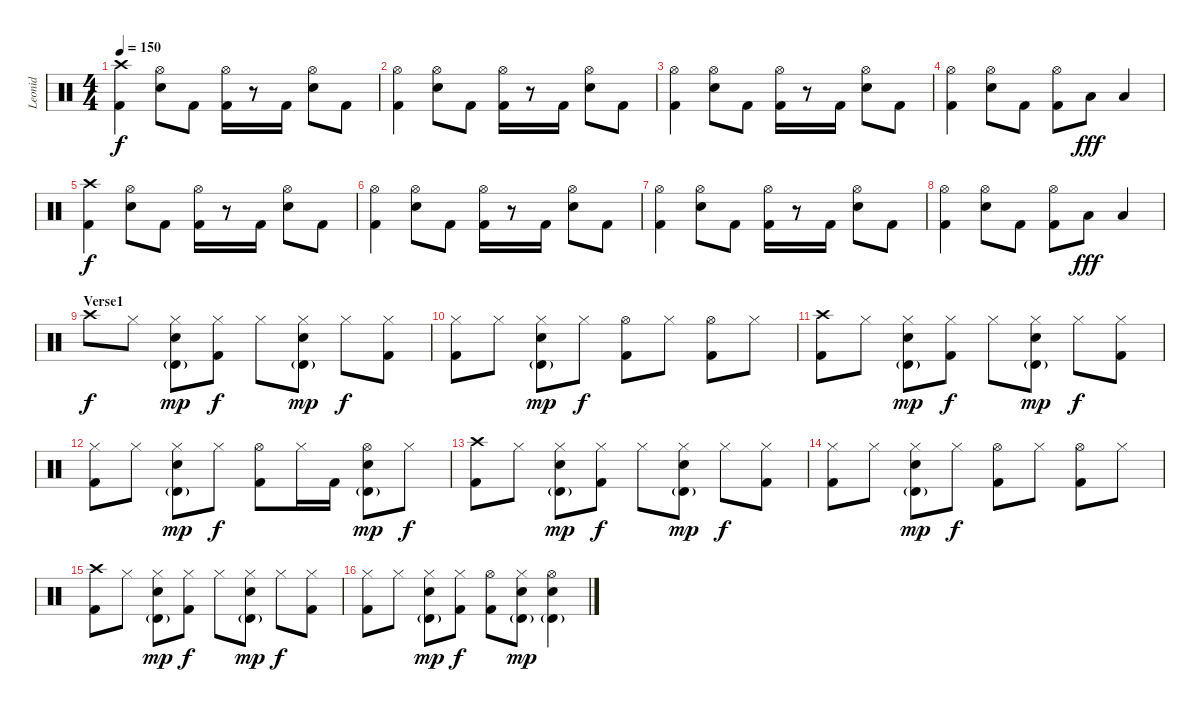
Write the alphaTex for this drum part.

\track ("Leonid" "Leonid") {instrument percussion}
\staff {score}
\articulation defaults
\ts (4 4)
\section ("" "")
\tempo 150
\clef neutral
\ks c
("Crash high (hit)" "Kick (hit) 2").4{dy f} ("Hi-Hat (open)" "Electric Snare (hit)").8 "Kick (hit) 2".8 ("Hi-Hat (open)" "Kick (hit) 2").16 r.8 "Kick (hit) 2".16 ("Hi-Hat (open)" "Electric Snare (hit)").8 "Kick (hit) 2".8 |
("Hi-Hat (open)" "Kick (hit) 2").4 ("Hi-Hat (open)" "Electric Snare (hit)").8 "Kick (hit) 2".8 ("Hi-Hat (open)" "Kick (hit) 2").16 r.8 "Kick (hit) 2".16 ("Hi-Hat (open)" "Electric Snare (hit)").8 "Kick (hit) 2".8 |
("Hi-Hat (open)" "Kick (hit) 2").4 ("Hi-Hat (open)" "Electric Snare (hit)").8 "Kick (hit) 2".8 ("Hi-Hat (open)" "Kick (hit) 2").16 r.8 "Kick (hit) 2".16 ("Hi-Hat (open)" "Electric Snare (hit)").8 "Kick (hit) 2".8 |
("Hi-Hat (open)" "Kick (hit) 2").4 ("Hi-Hat (open)" "Electric Snare (hit)").8 "Kick (hit) 2".8 ("Hi-Hat (open)" "Kick (hit) 2").8 "Low Tom (hit)".8{dy fff} "Low Tom (hit)".4 |
("Crash high (hit)" "Kick (hit) 2").4{dy f} ("Hi-Hat (open)" "Electric Snare (hit)").8 "Kick (hit) 2".8 ("Hi-Hat (open)" "Kick (hit) 2").16 r.8 "Kick (hit) 2".16 ("Hi-Hat (open)" "Electric Snare (hit)").8 "Kick (hit) 2".8 |
("Hi-Hat (open)" "Kick (hit) 2").4 ("Hi-Hat (open)" "Electric Snare (hit)").8 "Kick (hit) 2".8 ("Hi-Hat (open)" "Kick (hit) 2").16 r.8 "Kick (hit) 2".16 ("Hi-Hat (open)" "Electric Snare (hit)").8 "Kick (hit) 2".8 |
("Hi-Hat (open)" "Kick (hit) 2").4 ("Hi-Hat (open)" "Electric Snare (hit)").8 "Kick (hit) 2".8 ("Hi-Hat (open)" "Kick (hit) 2").16 r.8 "Kick (hit) 2".16 ("Hi-Hat (open)" "Electric Snare (hit)").8 "Kick (hit) 2".8 |
("Hi-Hat (open)" "Kick (hit) 2").4 ("Hi-Hat (open)" "Electric Snare (hit)").8 "Kick (hit) 2".8 ("Hi-Hat (open)" "Kick (hit) 2").8 "Low Tom (hit)".8{dy fff} "Low Tom (hit)".4 |
\section ("" "Verse1")
"Crash high (hit)".8{dy f} "Hi-Hat (closed)".8 ("Hi-Hat (closed)" "Timbale high (hit)"{g} "Electric Snare (hit)").8{dy mp} ("Hi-Hat (closed)" "Kick (hit) 2").8{dy f} "Hi-Hat (closed)".8 ("Hi-Hat (closed)" "Timbale high (hit)"{g} "Electric Snare (hit)").8{dy mp} "Hi-Hat (closed)".8{dy f} ("Hi-Hat (closed)" "Kick (hit) 2").8 |
("Hi-Hat (closed)" "Kick (hit) 2").8 "Hi-Hat (closed)".8 ("Hi-Hat (closed)" "Timbale high (hit)"{g} "Electric Snare (hit)").8{dy mp} "Hi-Hat (closed)".8{dy f} ("Hi-Hat (open)" "Kick (hit) 2").8 "Hi-Hat (closed)".8 ("Hi-Hat (open)" "Kick (hit) 2").8 "Hi-Hat (closed)".8 |
("Crash high (hit)" "Kick (hit) 2").8 "Hi-Hat (closed)".8 ("Hi-Hat (closed)" "Timbale high (hit)"{g} "Electric Snare (hit)").8{dy mp} ("Hi-Hat (closed)" "Kick (hit) 2").8{dy f} "Hi-Hat (closed)".8 ("Hi-Hat (closed)" "Timbale high (hit)"{g} "Electric Snare (hit)").8{dy mp} "Hi-Hat (closed)".8{dy f} ("Hi-Hat (closed)" "Kick (hit) 2").8 |
("Hi-Hat (closed)" "Kick (hit) 2").8 "Hi-Hat (closed)".8 ("Hi-Hat (closed)" "Timbale high (hit)"{g} "Electric Snare (hit)").8{dy mp} "Hi-Hat (closed)".8{dy f} ("Hi-Hat (open)" "Kick (hit) 2").8 "Hi-Hat (closed)".16 "Kick (hit) 2".16 ("Hi-Hat (open)" "Timbale high (hit)"{g} "Electric Snare (hit)").8{dy mp} "Hi-Hat (closed)".8{dy f} |
("Crash high (hit)" "Kick (hit) 2").8 "Hi-Hat (closed)".8 ("Hi-Hat (closed)" "Timbale high (hit)"{g} "Electric Snare (hit)").8{dy mp} ("Hi-Hat (closed)" "Kick (hit) 2").8{dy f} "Hi-Hat (closed)".8 ("Hi-Hat (closed)" "Timbale high (hit)"{g} "Electric Snare (hit)").8{dy mp} "Hi-Hat (closed)".8{dy f} ("Hi-Hat (closed)" "Kick (hit) 2").8 |
("Hi-Hat (closed)" "Kick (hit) 2").8 "Hi-Hat (closed)".8 ("Hi-Hat (closed)" "Timbale high (hit)"{g} "Electric Snare (hit)").8{dy mp} "Hi-Hat (closed)".8{dy f} ("Hi-Hat (open)" "Kick (hit) 2").8 "Hi-Hat (closed)".8 ("Hi-Hat (open)" "Kick (hit) 2").8 "Hi-Hat (closed)".8 |
("Crash high (hit)" "Kick (hit) 2").8 "Hi-Hat (closed)".8 ("Hi-Hat (closed)" "Timbale high (hit)"{g} "Electric Snare (hit)").8{dy mp} ("Hi-Hat (closed)" "Kick (hit) 2").8{dy f} "Hi-Hat (closed)".8 ("Hi-Hat (closed)" "Timbale high (hit)"{g} "Electric Snare (hit)").8{dy mp} "Hi-Hat (closed)".8{dy f} ("Hi-Hat (closed)" "Kick (hit) 2").8 |
("Hi-Hat (closed)" "Kick (hit) 2").8 "Hi-Hat (closed)".8 ("Hi-Hat (closed)" "Timbale high (hit)"{g} "Electric Snare (hit)").8{dy mp} ("Hi-Hat (closed)" "Kick (hit) 2").8{dy f} ("Hi-Hat (open)" "Kick (hit) 2").8 ("Hi-Hat (closed)" "Timbale high (hit)"{g} "Electric Snare (hit)").8{dy mp} ("Hi-Hat (open)" "Timbale high (hit)"{g} "Electric Snare (hit)").4
